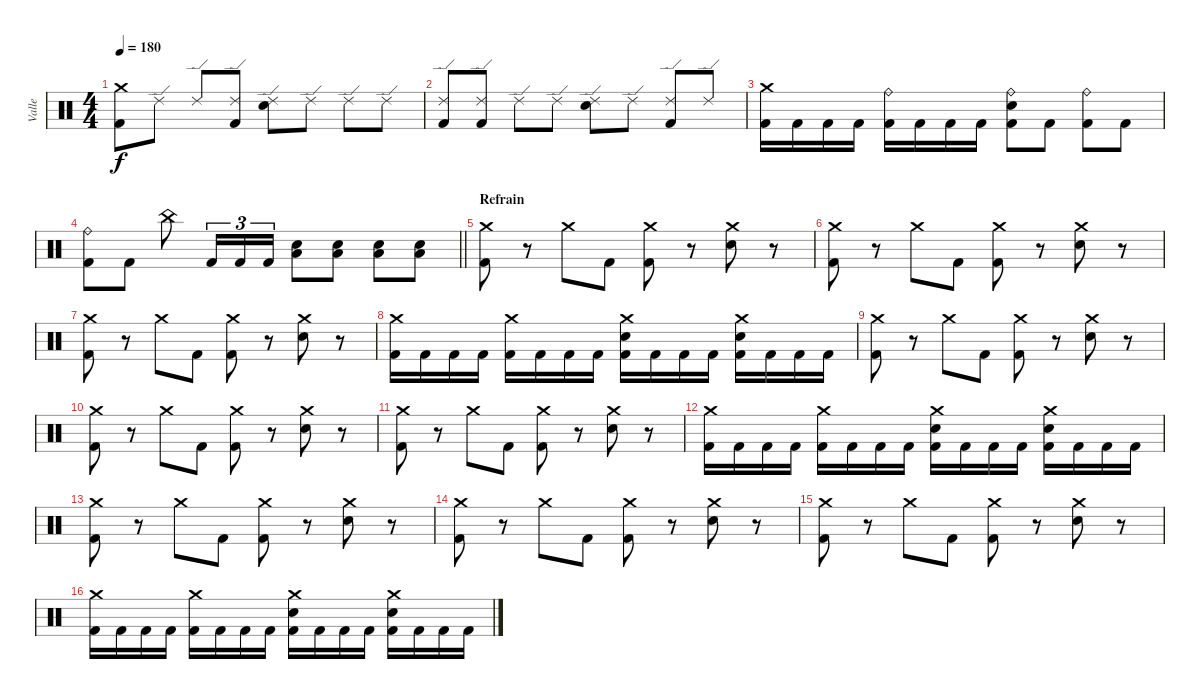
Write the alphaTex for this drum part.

\track ("Valle" "Valle") {instrument percussion}
\staff {score}
\articulation defaults
\ts (4 4)
\tempo 180
\clef neutral
\ks c
("Crash medium (hit)" "Kick (hit) 2").8{dy f} "Ride (edge) 2".8 "Ride (edge) 2".8 ("Ride (edge) 2" "Kick (hit) 2").8 ("Ride (edge) 2" "Snare (hit) 2").8 "Ride (edge) 2".8 "Ride (edge) 2".8 "Ride (edge) 2".8 |
("Ride (edge) 2" "Kick (hit) 2").8 ("Ride (edge) 2" "Kick (hit) 2").8 "Ride (edge) 2".8 "Ride (edge) 2".8 ("Ride (edge) 2" "Snare (hit) 2").8 "Ride (edge) 2".8 ("Ride (edge) 2" "Kick (hit) 2").8 "Ride (edge) 2".8 |
("Crash medium (hit)" "Kick (hit) 2").16 "Kick (hit) 2".16 "Kick (hit) 2".16 "Kick (hit) 2".16 ("Ride (bell)" "Kick (hit) 2").16 "Kick (hit) 2".16 "Kick (hit) 2".16 "Kick (hit) 2".16 ("Ride (bell)" "Snare (hit) 2" "Kick (hit) 2").8 "Kick (hit) 2".8 ("Ride (bell)" "Kick (hit) 2").8 "Kick (hit) 2".8 |
\barLineRight lightlight
("Ride (bell)" "Kick (hit) 2").8 "Kick (hit) 2".8 "China (hit)".8 "Kick (hit) 2".16{tu (3 2)} "Kick (hit) 2".16{tu (3 2)} "Kick (hit) 2".16{tu (3 2)} ("Low Floor Tom (hit)" "Snare (hit) 2").8 ("Low Floor Tom (hit)" "Snare (hit) 2").8 ("Low Floor Tom (hit)" "Snare (hit) 2").8 ("Low Floor Tom (hit)" "Snare (hit) 2").8 |
\section ("" "Refrain")
("Crash medium (hit)" "Kick (hit) 2").8 r.8 "Crash medium (hit)".8 "Kick (hit) 2".8 ("Crash medium (hit)" "Kick (hit) 2").8 r.8 ("Crash medium (hit)" "Snare (hit) 2").8 r.8 |
("Crash medium (hit)" "Kick (hit) 2").8 r.8 "Crash medium (hit)".8 "Kick (hit) 2".8 ("Crash medium (hit)" "Kick (hit) 2").8 r.8 ("Crash medium (hit)" "Snare (hit) 2").8 r.8 |
("Crash medium (hit)" "Kick (hit) 2").8 r.8 "Crash medium (hit)".8 "Kick (hit) 2".8 ("Crash medium (hit)" "Kick (hit) 2").8 r.8 ("Crash medium (hit)" "Snare (hit) 2").8 r.8 |
("Crash medium (hit)" "Kick (hit) 2").16 "Kick (hit) 2".16 "Kick (hit) 2".16 "Kick (hit) 2".16 ("Crash medium (hit)" "Kick (hit) 2").16 "Kick (hit) 2".16 "Kick (hit) 2".16 "Kick (hit) 2".16 ("Crash medium (hit)" "Snare (hit) 2" "Kick (hit) 2").16 "Kick (hit) 2".16 "Kick (hit) 2".16 "Kick (hit) 2".16 ("Crash medium (hit)" "Snare (hit) 2" "Kick (hit) 2").16 "Kick (hit) 2".16 "Kick (hit) 2".16 "Kick (hit) 2".16 |
("Crash medium (hit)" "Kick (hit) 2").8 r.8 "Crash medium (hit)".8 "Kick (hit) 2".8 ("Crash medium (hit)" "Kick (hit) 2").8 r.8 ("Crash medium (hit)" "Snare (hit) 2").8 r.8 |
("Crash medium (hit)" "Kick (hit) 2").8 r.8 "Crash medium (hit)".8 "Kick (hit) 2".8 ("Crash medium (hit)" "Kick (hit) 2").8 r.8 ("Crash medium (hit)" "Snare (hit) 2").8 r.8 |
("Crash medium (hit)" "Kick (hit) 2").8 r.8 "Crash medium (hit)".8 "Kick (hit) 2".8 ("Crash medium (hit)" "Kick (hit) 2").8 r.8 ("Crash medium (hit)" "Snare (hit) 2").8 r.8 |
("Crash medium (hit)" "Kick (hit) 2").16 "Kick (hit) 2".16 "Kick (hit) 2".16 "Kick (hit) 2".16 ("Crash medium (hit)" "Kick (hit) 2").16 "Kick (hit) 2".16 "Kick (hit) 2".16 "Kick (hit) 2".16 ("Crash medium (hit)" "Snare (hit) 2" "Kick (hit) 2").16 "Kick (hit) 2".16 "Kick (hit) 2".16 "Kick (hit) 2".16 ("Crash medium (hit)" "Snare (hit) 2" "Kick (hit) 2").16 "Kick (hit) 2".16 "Kick (hit) 2".16 "Kick (hit) 2".16 |
("Crash medium (hit)" "Kick (hit) 2").8 r.8 "Crash medium (hit)".8 "Kick (hit) 2".8 ("Crash medium (hit)" "Kick (hit) 2").8 r.8 ("Crash medium (hit)" "Snare (hit) 2").8 r.8 |
("Crash medium (hit)" "Kick (hit) 2").8 r.8 "Crash medium (hit)".8 "Kick (hit) 2".8 ("Crash medium (hit)" "Kick (hit) 2").8 r.8 ("Crash medium (hit)" "Snare (hit) 2").8 r.8 |
("Crash medium (hit)" "Kick (hit) 2").8 r.8 "Crash medium (hit)".8 "Kick (hit) 2".8 ("Crash medium (hit)" "Kick (hit) 2").8 r.8 ("Crash medium (hit)" "Snare (hit) 2").8 r.8 |
("Crash medium (hit)" "Kick (hit) 2").16 "Kick (hit) 2".16 "Kick (hit) 2".16 "Kick (hit) 2".16 ("Crash medium (hit)" "Kick (hit) 2").16 "Kick (hit) 2".16 "Kick (hit) 2".16 "Kick (hit) 2".16 ("Crash medium (hit)" "Snare (hit) 2" "Kick (hit) 2").16 "Kick (hit) 2".16 "Kick (hit) 2".16 "Kick (hit) 2".16 ("Crash medium (hit)" "Snare (hit) 2" "Kick (hit) 2").16 "Kick (hit) 2".16 "Kick (hit) 2".16 "Kick (hit) 2".16
